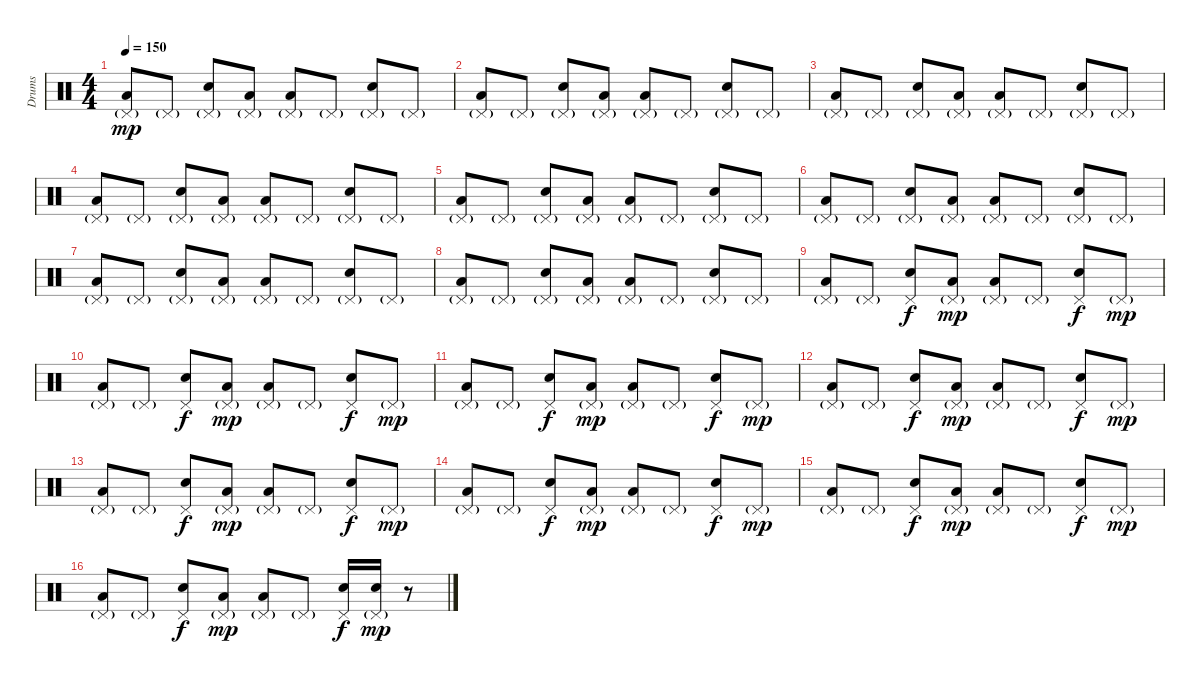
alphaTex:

\track ("Drums" "Drums") {instrument percussion}
\staff {score}
\articulation defaults
\ts (4 4)
\tempo 150
\clef neutral
\ks c
("Pedal Hi-Hat (hit)"{g} "Low Tom (hit)").8{dy mp} "Pedal Hi-Hat (hit)"{g}.8 ("Pedal Hi-Hat (hit)"{g} "Electric Snare (hit)").8 ("Pedal Hi-Hat (hit)"{g} "Low Tom (hit)").8 ("Pedal Hi-Hat (hit)"{g} "Low Tom (hit)").8 "Pedal Hi-Hat (hit)"{g}.8 ("Pedal Hi-Hat (hit)"{g} "Electric Snare (hit)").8 "Pedal Hi-Hat (hit)"{g}.8 |
("Pedal Hi-Hat (hit)"{g} "Low Tom (hit)").8 "Pedal Hi-Hat (hit)"{g}.8 ("Pedal Hi-Hat (hit)"{g} "Electric Snare (hit)").8 ("Pedal Hi-Hat (hit)"{g} "Low Tom (hit)").8 ("Pedal Hi-Hat (hit)"{g} "Low Tom (hit)").8 "Pedal Hi-Hat (hit)"{g}.8 ("Pedal Hi-Hat (hit)"{g} "Electric Snare (hit)").8 "Pedal Hi-Hat (hit)"{g}.8 |
("Pedal Hi-Hat (hit)"{g} "Low Tom (hit)").8 "Pedal Hi-Hat (hit)"{g}.8 ("Pedal Hi-Hat (hit)"{g} "Electric Snare (hit)").8 ("Pedal Hi-Hat (hit)"{g} "Low Tom (hit)").8 ("Pedal Hi-Hat (hit)"{g} "Low Tom (hit)").8 "Pedal Hi-Hat (hit)"{g}.8 ("Pedal Hi-Hat (hit)"{g} "Electric Snare (hit)").8 "Pedal Hi-Hat (hit)"{g}.8 |
("Pedal Hi-Hat (hit)"{g} "Low Tom (hit)").8 "Pedal Hi-Hat (hit)"{g}.8 ("Pedal Hi-Hat (hit)"{g} "Electric Snare (hit)").8 ("Pedal Hi-Hat (hit)"{g} "Low Tom (hit)").8 ("Pedal Hi-Hat (hit)"{g} "Low Tom (hit)").8 "Pedal Hi-Hat (hit)"{g}.8 ("Pedal Hi-Hat (hit)"{g} "Electric Snare (hit)").8 "Pedal Hi-Hat (hit)"{g}.8 |
("Pedal Hi-Hat (hit)"{g} "Low Tom (hit)").8 "Pedal Hi-Hat (hit)"{g}.8 ("Pedal Hi-Hat (hit)"{g} "Electric Snare (hit)").8 ("Pedal Hi-Hat (hit)"{g} "Low Tom (hit)").8 ("Pedal Hi-Hat (hit)"{g} "Low Tom (hit)").8 "Pedal Hi-Hat (hit)"{g}.8 ("Pedal Hi-Hat (hit)"{g} "Electric Snare (hit)").8 "Pedal Hi-Hat (hit)"{g}.8 |
("Pedal Hi-Hat (hit)"{g} "Low Tom (hit)").8 "Pedal Hi-Hat (hit)"{g}.8 ("Pedal Hi-Hat (hit)"{g} "Electric Snare (hit)").8 ("Pedal Hi-Hat (hit)"{g} "Low Tom (hit)").8 ("Pedal Hi-Hat (hit)"{g} "Low Tom (hit)").8 "Pedal Hi-Hat (hit)"{g}.8 ("Pedal Hi-Hat (hit)"{g} "Electric Snare (hit)").8 "Pedal Hi-Hat (hit)"{g}.8 |
("Pedal Hi-Hat (hit)"{g} "Low Tom (hit)").8 "Pedal Hi-Hat (hit)"{g}.8 ("Pedal Hi-Hat (hit)"{g} "Electric Snare (hit)").8 ("Pedal Hi-Hat (hit)"{g} "Low Tom (hit)").8 ("Pedal Hi-Hat (hit)"{g} "Low Tom (hit)").8 "Pedal Hi-Hat (hit)"{g}.8 ("Pedal Hi-Hat (hit)"{g} "Electric Snare (hit)").8 "Pedal Hi-Hat (hit)"{g}.8 |
("Pedal Hi-Hat (hit)"{g} "Low Tom (hit)").8 "Pedal Hi-Hat (hit)"{g}.8 ("Pedal Hi-Hat (hit)"{g} "Electric Snare (hit)").8 ("Pedal Hi-Hat (hit)"{g} "Low Tom (hit)").8 ("Pedal Hi-Hat (hit)"{g} "Low Tom (hit)").8 "Pedal Hi-Hat (hit)"{g}.8 ("Pedal Hi-Hat (hit)"{g} "Electric Snare (hit)").8 "Pedal Hi-Hat (hit)"{g}.8 |
("Pedal Hi-Hat (hit)"{g} "Low Tom (hit)").8 "Pedal Hi-Hat (hit)"{g}.8 ("Pedal Hi-Hat (hit)" "Electric Snare (hit)").8{dy f} ("Pedal Hi-Hat (hit)"{g} "Low Tom (hit)").8{dy mp} ("Pedal Hi-Hat (hit)"{g} "Low Tom (hit)").8 "Pedal Hi-Hat (hit)"{g}.8 ("Pedal Hi-Hat (hit)" "Electric Snare (hit)").8{dy f} "Pedal Hi-Hat (hit)"{g}.8{dy mp} |
("Pedal Hi-Hat (hit)"{g} "Low Tom (hit)").8 "Pedal Hi-Hat (hit)"{g}.8 ("Pedal Hi-Hat (hit)" "Electric Snare (hit)").8{dy f} ("Pedal Hi-Hat (hit)"{g} "Low Tom (hit)").8{dy mp} ("Pedal Hi-Hat (hit)"{g} "Low Tom (hit)").8 "Pedal Hi-Hat (hit)"{g}.8 ("Pedal Hi-Hat (hit)" "Electric Snare (hit)").8{dy f} "Pedal Hi-Hat (hit)"{g}.8{dy mp} |
("Pedal Hi-Hat (hit)"{g} "Low Tom (hit)").8 "Pedal Hi-Hat (hit)"{g}.8 ("Pedal Hi-Hat (hit)" "Electric Snare (hit)").8{dy f} ("Pedal Hi-Hat (hit)"{g} "Low Tom (hit)").8{dy mp} ("Pedal Hi-Hat (hit)"{g} "Low Tom (hit)").8 "Pedal Hi-Hat (hit)"{g}.8 ("Pedal Hi-Hat (hit)" "Electric Snare (hit)").8{dy f} "Pedal Hi-Hat (hit)"{g}.8{dy mp} |
("Pedal Hi-Hat (hit)"{g} "Low Tom (hit)").8 "Pedal Hi-Hat (hit)"{g}.8 ("Pedal Hi-Hat (hit)" "Electric Snare (hit)").8{dy f} ("Pedal Hi-Hat (hit)"{g} "Low Tom (hit)").8{dy mp} ("Pedal Hi-Hat (hit)"{g} "Low Tom (hit)").8 "Pedal Hi-Hat (hit)"{g}.8 ("Pedal Hi-Hat (hit)" "Electric Snare (hit)").8{dy f} "Pedal Hi-Hat (hit)"{g}.8{dy mp} |
("Pedal Hi-Hat (hit)"{g} "Low Tom (hit)").8 "Pedal Hi-Hat (hit)"{g}.8 ("Pedal Hi-Hat (hit)" "Electric Snare (hit)").8{dy f} ("Pedal Hi-Hat (hit)"{g} "Low Tom (hit)").8{dy mp} ("Pedal Hi-Hat (hit)"{g} "Low Tom (hit)").8 "Pedal Hi-Hat (hit)"{g}.8 ("Pedal Hi-Hat (hit)" "Electric Snare (hit)").8{dy f} "Pedal Hi-Hat (hit)"{g}.8{dy mp} |
("Pedal Hi-Hat (hit)"{g} "Low Tom (hit)").8 "Pedal Hi-Hat (hit)"{g}.8 ("Pedal Hi-Hat (hit)" "Electric Snare (hit)").8{dy f} ("Pedal Hi-Hat (hit)"{g} "Low Tom (hit)").8{dy mp} ("Pedal Hi-Hat (hit)"{g} "Low Tom (hit)").8 "Pedal Hi-Hat (hit)"{g}.8 ("Pedal Hi-Hat (hit)" "Electric Snare (hit)").8{dy f} "Pedal Hi-Hat (hit)"{g}.8{dy mp} |
("Pedal Hi-Hat (hit)"{g} "Low Tom (hit)").8 "Pedal Hi-Hat (hit)"{g}.8 ("Pedal Hi-Hat (hit)" "Electric Snare (hit)").8{dy f} ("Pedal Hi-Hat (hit)"{g} "Low Tom (hit)").8{dy mp} ("Pedal Hi-Hat (hit)"{g} "Low Tom (hit)").8 "Pedal Hi-Hat (hit)"{g}.8 ("Pedal Hi-Hat (hit)" "Electric Snare (hit)").8{dy f} "Pedal Hi-Hat (hit)"{g}.8{dy mp} |
("Pedal Hi-Hat (hit)"{g} "Low Tom (hit)").8 "Pedal Hi-Hat (hit)"{g}.8 ("Pedal Hi-Hat (hit)" "Electric Snare (hit)").8{dy f} ("Pedal Hi-Hat (hit)"{g} "Low Tom (hit)").8{dy mp} ("Pedal Hi-Hat (hit)"{g} "Low Tom (hit)").8 "Pedal Hi-Hat (hit)"{g}.8 ("Pedal Hi-Hat (hit)" "Electric Snare (hit)").16{dy f} ("Pedal Hi-Hat (hit)"{g} "Electric Snare (hit)").16{dy mp} r.8
